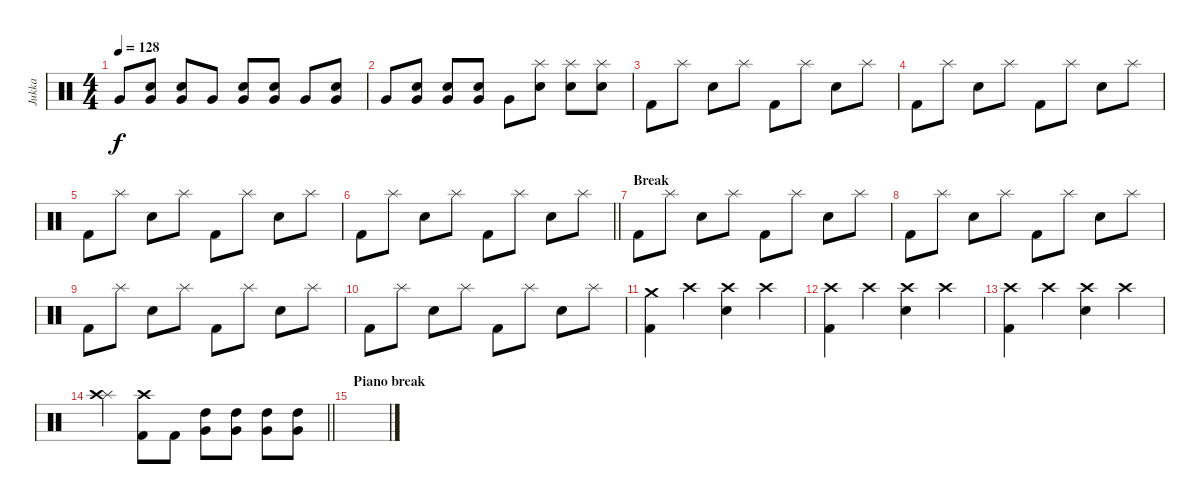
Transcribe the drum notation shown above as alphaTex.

\track ("Jukka" "Jukka") {instrument percussion}
\staff {score}
\articulation defaults
\ts (4 4)
\tempo 128
\clef neutral
\ks c "Very Low Tom (hit)".8{dy f}
("Electric Snare (hit)" "Very Low Tom (hit)").8 ("Electric Snare (hit)" "Very Low Tom (hit)").8 "Very Low Tom (hit)".8 ("Electric Snare (hit)" "Very Low Tom (hit)").8 ("Electric Snare (hit)" "Very Low Tom (hit)").8 "Very Low Tom (hit)".8 ("Electric Snare (hit)" "Very Low Tom (hit)").8 |
"Very Low Tom (hit)".8 ("Electric Snare (hit)" "Very Low Tom (hit)").8 ("Electric Snare (hit)" "Very Low Tom (hit)").8 ("Electric Snare (hit)" "Very Low Tom (hit)").8 "Very Low Tom (hit)".8 ("Electric Snare (hit)" "Splash (hit)").8 ("Electric Snare (hit)" "Splash (hit)").8 ("Electric Snare (hit)" "Splash (hit)").8 |
"Kick (hit) 2".8 "Splash (hit)".8 "Electric Snare (hit)".8 "Splash (hit)".8 "Kick (hit) 2".8 "Splash (hit)".8 "Electric Snare (hit)".8 "Splash (hit)".8 |
"Kick (hit) 2".8 "Splash (hit)".8 "Electric Snare (hit)".8 "Splash (hit)".8 "Kick (hit) 2".8 "Splash (hit)".8 "Electric Snare (hit)".8 "Splash (hit)".8 |
"Kick (hit) 2".8 "Splash (hit)".8 "Electric Snare (hit)".8 "Splash (hit)".8 "Kick (hit) 2".8 "Splash (hit)".8 "Electric Snare (hit)".8 "Splash (hit)".8 |
\barLineRight lightlight "Kick (hit) 2".8 "Splash (hit)".8 "Electric Snare (hit)".8 "Splash (hit)".8 "Kick (hit) 2".8 "Splash (hit)".8 "Electric Snare (hit)".8 "Splash (hit)".8
|
\section ("" "Break")
"Kick (hit) 2".8 "Splash (hit)".8 "Electric Snare (hit)".8 "Splash (hit)".8 "Kick (hit) 2".8 "Splash (hit)".8 "Electric Snare (hit)".8 "Splash (hit)".8 |
"Kick (hit) 2".8 "Splash (hit)".8 "Electric Snare (hit)".8 "Splash (hit)".8 "Kick (hit) 2".8 "Splash (hit)".8 "Electric Snare (hit)".8 "Splash (hit)".8 |
"Kick (hit) 2".8 "Splash (hit)".8 "Electric Snare (hit)".8 "Splash (hit)".8 "Kick (hit) 2".8 "Splash (hit)".8 "Electric Snare (hit)".8 "Splash (hit)".8 |
"Kick (hit) 2".8 "Splash (hit)".8 "Electric Snare (hit)".8 "Splash (hit)".8 "Kick (hit) 2".8 "Splash (hit)".8 "Electric Snare (hit)".8 "Splash (hit)".8 |
("Kick (hit) 2" "Crash medium (hit)").4 "Crash high (hit)".4 ("Electric Snare (hit)" "Crash high (hit)").4 "Crash high (hit)".4 |
("Kick (hit) 2" "Crash high (hit)").4 "Crash high (hit)".4 ("Electric Snare (hit)" "Crash high (hit)").4 "Crash high (hit)".4 |
("Kick (hit) 2" "Crash high (hit)").4 "Crash high (hit)".4 ("Electric Snare (hit)" "Crash high (hit)").4 "Crash high (hit)".4 |
\barLineRight lightlight
("Splash (hit)" "Crash high (hit)").4 ("Kick (hit) 2" "Crash high (hit)").8 "Kick (hit) 2".8 ("Very Low Tom (hit)" "High Tom (hit)").8 ("Very Low Tom (hit)" "High Tom (hit)").8 ("Very Low Tom (hit)" "High Tom (hit)").8 ("Very Low Tom (hit)" "High Tom (hit)").8 |
\section ("" "Piano break")
